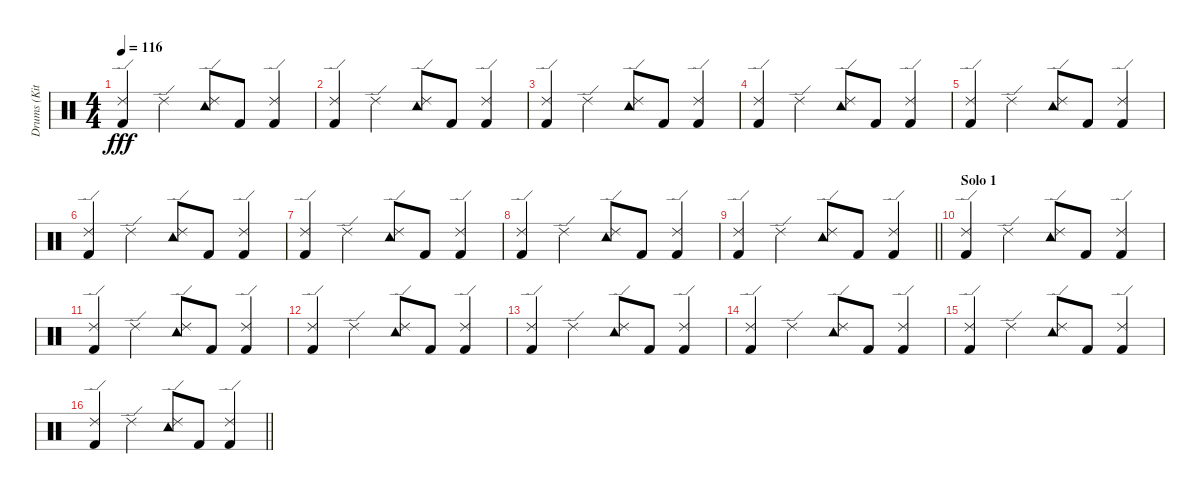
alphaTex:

\track ("Drums (Kit)" "Drums (Kit") {instrument percussion}
\staff {score}
\articulation defaults
\ts (4 4)
\tempo 116
\clef neutral
\ks c
("Kick (hit) 2" "Ride (edge) 2").4{dy fff} "Ride (edge) 2".4 ("Ride (edge) 2" "Tambourine (hit)").8 "Kick (hit) 2".8 ("Ride (edge) 2" "Kick (hit) 2").4 |
("Ride (edge) 2" "Kick (hit) 2").4 "Ride (edge) 2".4 ("Ride (edge) 2" "Tambourine (hit)").8 "Kick (hit) 2".8 ("Ride (edge) 2" "Kick (hit) 2").4 |
("Kick (hit) 2" "Ride (edge) 2").4 "Ride (edge) 2".4 ("Ride (edge) 2" "Tambourine (hit)").8 "Kick (hit) 2".8 ("Ride (edge) 2" "Kick (hit) 2").4 |
("Ride (edge) 2" "Kick (hit) 2").4 "Ride (edge) 2".4 ("Ride (edge) 2" "Tambourine (hit)").8 "Kick (hit) 2".8 ("Ride (edge) 2" "Kick (hit) 2").4 |
("Kick (hit) 2" "Ride (edge) 2").4 "Ride (edge) 2".4 ("Ride (edge) 2" "Tambourine (hit)").8 "Kick (hit) 2".8 ("Ride (edge) 2" "Kick (hit) 2").4 |
("Ride (edge) 2" "Kick (hit) 2").4 "Ride (edge) 2".4 ("Ride (edge) 2" "Tambourine (hit)").8 "Kick (hit) 2".8 ("Ride (edge) 2" "Kick (hit) 2").4 |
("Kick (hit) 2" "Ride (edge) 2").4 "Ride (edge) 2".4 ("Ride (edge) 2" "Tambourine (hit)").8 "Kick (hit) 2".8 ("Ride (edge) 2" "Kick (hit) 2").4 |
("Ride (edge) 2" "Kick (hit) 2").4 "Ride (edge) 2".4 ("Ride (edge) 2" "Tambourine (hit)").8 "Kick (hit) 2".8 ("Ride (edge) 2" "Kick (hit) 2").4 |
\barLineRight lightlight
("Kick (hit) 2" "Ride (edge) 2").4 "Ride (edge) 2".4 ("Ride (edge) 2" "Tambourine (hit)").8 "Kick (hit) 2".8 ("Ride (edge) 2" "Kick (hit) 2").4 |
\section ("" "Solo 1")
("Ride (edge) 2" "Kick (hit) 2").4 "Ride (edge) 2".4 ("Ride (edge) 2" "Tambourine (hit)").8 "Kick (hit) 2".8 ("Ride (edge) 2" "Kick (hit) 2").4 |
("Kick (hit) 2" "Ride (edge) 2").4 "Ride (edge) 2".4 ("Ride (edge) 2" "Tambourine (hit)").8 "Kick (hit) 2".8 ("Ride (edge) 2" "Kick (hit) 2").4 |
("Ride (edge) 2" "Kick (hit) 2").4 "Ride (edge) 2".4 ("Ride (edge) 2" "Tambourine (hit)").8 "Kick (hit) 2".8 ("Ride (edge) 2" "Kick (hit) 2").4 |
("Kick (hit) 2" "Ride (edge) 2").4 "Ride (edge) 2".4 ("Ride (edge) 2" "Tambourine (hit)").8 "Kick (hit) 2".8 ("Ride (edge) 2" "Kick (hit) 2").4 |
("Ride (edge) 2" "Kick (hit) 2").4 "Ride (edge) 2".4 ("Ride (edge) 2" "Tambourine (hit)").8 "Kick (hit) 2".8 ("Ride (edge) 2" "Kick (hit) 2").4 |
("Kick (hit) 2" "Ride (edge) 2").4 "Ride (edge) 2".4 ("Ride (edge) 2" "Tambourine (hit)").8 "Kick (hit) 2".8 ("Ride (edge) 2" "Kick (hit) 2").4 |
\barLineRight lightlight
("Ride (edge) 2" "Kick (hit) 2").4 "Ride (edge) 2".4 ("Ride (edge) 2" "Tambourine (hit)").8 "Kick (hit) 2".8 ("Ride (edge) 2" "Kick (hit) 2").4
